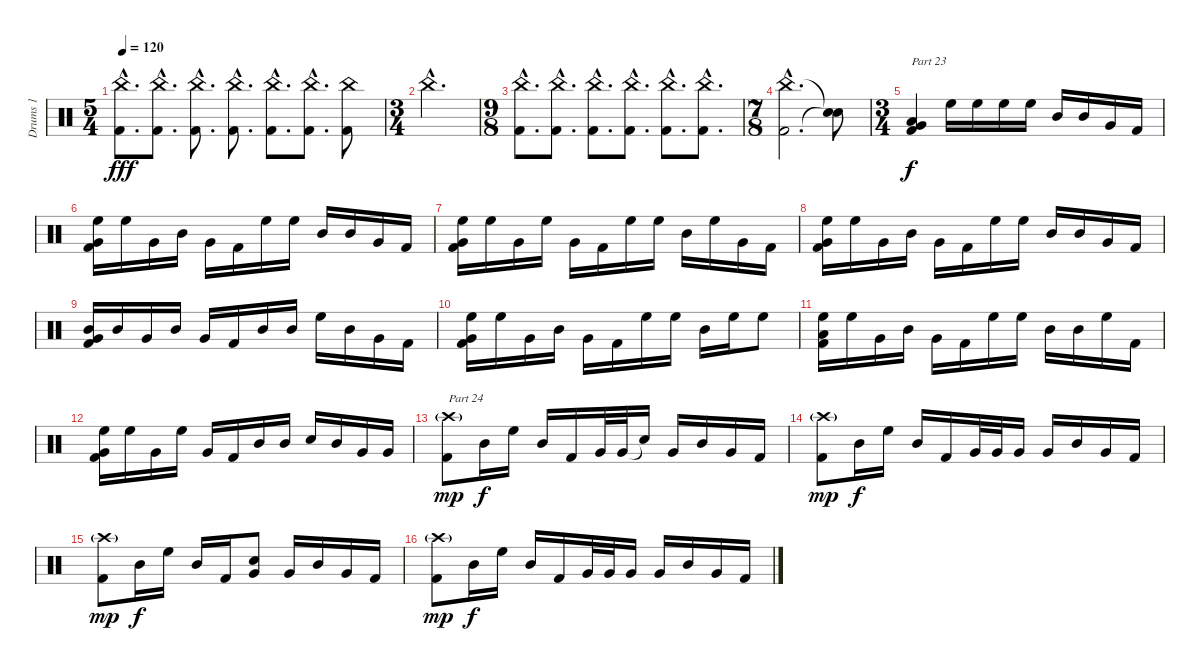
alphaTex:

\track ("Drums 1" "Drums 1") {instrument percussion}
\staff {score}
\articulation defaults
\ts (5 4)
\tempo 120
\clef neutral
\ks c
("China (hit)"{hac} "Kick (hit) 2"{hac}).8{d dy fff} ("China (hit)"{hac} "Kick (hit) 2"{hac}).8{d} ("China (hit)"{hac} "Kick (hit) 2"{hac}).8{d} ("China (hit)"{hac} "Kick (hit) 2"{hac}).8{d} ("China (hit)"{hac} "Kick (hit) 2"{hac}).8{d} ("China (hit)"{hac} "Kick (hit) 2"{hac}).8{d} ("China (hit)" "Kick (hit) 2").8 |
\ts (3 4)
"China (hit)"{hac}.2{d} |
\ts (9 8)
("China (hit)"{hac} "Kick (hit) 2"{hac}).8{d} ("China (hit)"{hac} "Kick (hit) 2"{hac}).8{d} ("China (hit)"{hac} "Kick (hit) 2"{hac}).8{d} ("China (hit)"{hac} "Kick (hit) 2"{hac}).8{d} ("China (hit)"{hac} "Kick (hit) 2"{hac}).8{d} ("China (hit)"{hac} "Kick (hit) 2"{hac}).8{d} |
\ts (7 8)
("China (hit)"{hac} "Kick (hit) 2"{hac}).2{d} ("Snare (hit)"{t} "Snare (hit)"{t}).8 |
\ts (3 4)
("Very Low Tom (hit)" "Low Floor Tom (hit)" "Kick (hit) 2").4{txt "Part 23" dy f} "High Floor Tom (hit)".16 "High Floor Tom (hit)".16 "High Floor Tom (hit)".16 "High Floor Tom (hit)".16 "Mid Tom (hit)".16 "Mid Tom (hit)".16 "Very Low Tom (hit)".16 "Kick (hit) 2".16 |
("High Floor Tom (hit)" "Very Low Tom (hit)" "Kick (hit) 2").16 "High Floor Tom (hit)".16 "Very Low Tom (hit)".16 "Mid Tom (hit)".16 "Very Low Tom (hit)".16 "Kick (hit) 2".16 "High Floor Tom (hit)".16 "High Floor Tom (hit)".16 "Mid Tom (hit)".16 "Mid Tom (hit)".16 "Very Low Tom (hit)".16 "Kick (hit) 2".16 |
("High Floor Tom (hit)" "Very Low Tom (hit)" "Kick (hit) 2").16 "High Floor Tom (hit)".16 "Very Low Tom (hit)".16 "High Floor Tom (hit)".16 "Very Low Tom (hit)".16 "Kick (hit) 2".16 "High Floor Tom (hit)".16 "High Floor Tom (hit)".16 "Mid Tom (hit)".16 "High Floor Tom (hit)".16 "Very Low Tom (hit)".16 "Kick (hit) 2".16 |
("High Floor Tom (hit)" "Very Low Tom (hit)" "Kick (hit) 2").16 "High Floor Tom (hit)".16 "Very Low Tom (hit)".16 "Mid Tom (hit)".16 "Very Low Tom (hit)".16 "Kick (hit) 2".16 "High Floor Tom (hit)".16 "High Floor Tom (hit)".16 "Mid Tom (hit)".16 "Mid Tom (hit)".16 "Very Low Tom (hit)".16 "Kick (hit) 2".16 |
("Mid Tom (hit)" "Very Low Tom (hit)" "Kick (hit) 2").16 "Mid Tom (hit)".16 "Very Low Tom (hit)".16 "Mid Tom (hit)".16 "Very Low Tom (hit)".16 "Kick (hit) 2".16 "Mid Tom (hit)".16 "Mid Tom (hit)".16 "High Floor Tom (hit)".16 "Mid Tom (hit)".16 "Very Low Tom (hit)".16 "Kick (hit) 2".16 |
("High Floor Tom (hit)" "Very Low Tom (hit)" "Kick (hit) 2").16 "High Floor Tom (hit)".16 "Very Low Tom (hit)".16 "Mid Tom (hit)".16 "Very Low Tom (hit)".16 "Kick (hit) 2".16 "High Floor Tom (hit)".16 "High Floor Tom (hit)".16 "Mid Tom (hit)".16 "High Floor Tom (hit)".16 "High Floor Tom (hit)".8 |
("High Floor Tom (hit)" "Low Floor Tom (hit)" "Kick (hit) 2").16 "High Floor Tom (hit)".16 "Very Low Tom (hit)".16 "Mid Tom (hit)".16 "Very Low Tom (hit)".16 "Kick (hit) 2".16 "High Floor Tom (hit)".16 "High Floor Tom (hit)".16 "Mid Tom (hit)".16 "Mid Tom (hit)".16 "High Floor Tom (hit)".16 "Kick (hit) 2".16 |
("High Floor Tom (hit)" "Very Low Tom (hit)" "Kick (hit) 2").16 "High Floor Tom (hit)".16 "Very Low Tom (hit)".16 "High Floor Tom (hit)".16 "Very Low Tom (hit)".16 "Kick (hit) 2".16 "Mid Tom (hit)".16 "Mid Tom (hit)".16 "Snare (hit) 2".16 "Mid Tom (hit)".16 "Very Low Tom (hit)".16 "Very Low Tom (hit)".16 |
("Crash high (hit)"{g} "Kick (hit) 2").8{txt "Part 24" dy mp} "Mid Tom (hit)".16{dy f} "High Floor Tom (hit)".16 "Mid Tom (hit)".16 "Kick (hit) 2".16 "Very Low Tom (hit)".32 "Very Low Tom (hit)".32 "Snare (hit)"{t}.16 "Very Low Tom (hit)".16 "Mid Tom (hit)".16 "Very Low Tom (hit)".16 "Kick (hit) 2".16 |
("Crash high (hit)"{g} "Kick (hit) 2").8{dy mp} "Mid Tom (hit)".16{dy f} "High Floor Tom (hit)".16 "Mid Tom (hit)".16 "Kick (hit) 2".16 "Very Low Tom (hit)".32 "Very Low Tom (hit)".32 "Very Low Tom (hit)".16 "Very Low Tom (hit)".16 "Mid Tom (hit)".16 "Very Low Tom (hit)".16 "Kick (hit) 2".16 |
("Crash high (hit)"{g} "Kick (hit) 2").8{dy mp} "Mid Tom (hit)".16{dy f} "High Floor Tom (hit)".16 "Mid Tom (hit)".16 "Kick (hit) 2".16 ("Snare (hit) 2" "Very Low Tom (hit)").8 "Very Low Tom (hit)".16 "Mid Tom (hit)".16 "Very Low Tom (hit)".16 "Kick (hit) 2".16 |
("Crash high (hit)"{g} "Kick (hit) 2").8{dy mp} "Mid Tom (hit)".16{dy f} "High Floor Tom (hit)".16 "Mid Tom (hit)".16 "Kick (hit) 2".16 "Very Low Tom (hit)".32 "Very Low Tom (hit)".32 "Very Low Tom (hit)".16 "Very Low Tom (hit)".16 "Mid Tom (hit)".16 "Very Low Tom (hit)".16 "Kick (hit) 2".16
